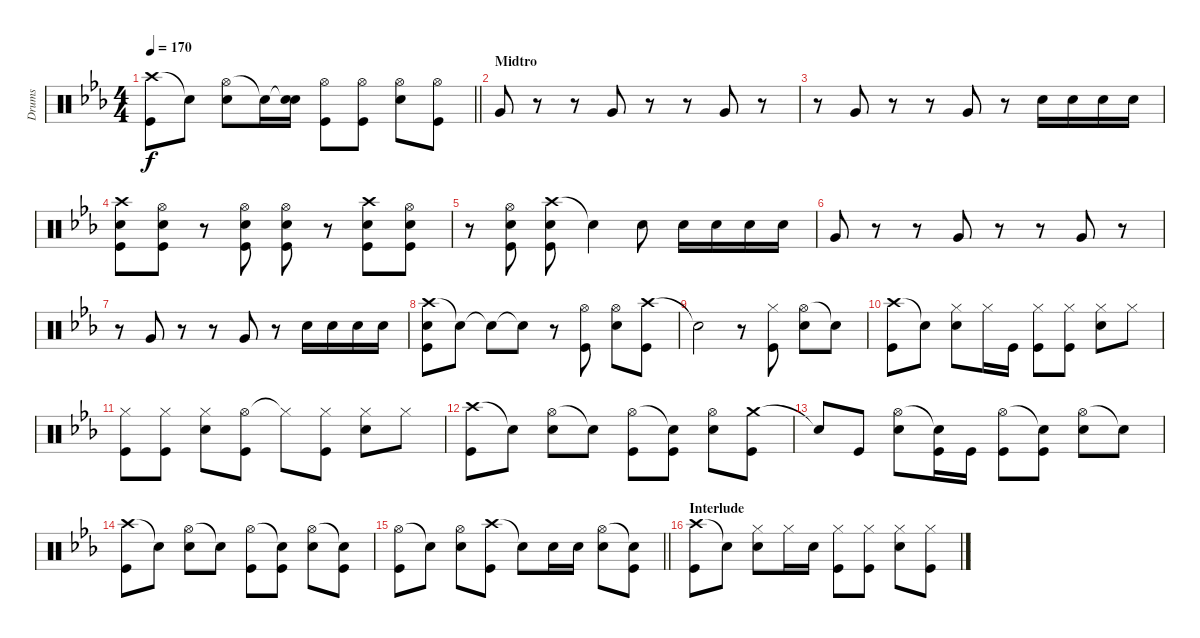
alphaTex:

\track ("Drums" "Drums") {solo instrument percussion}
\staff {score}
\articulation defaults
\ts (4 4)
\tempo 170
\clef neutral
\barLineRight lightlight
\ks eb
("Crash high (hit)" "Kick (hit)").8{dy f} "Snare (hit)"{t}.8 ("Hi-Hat (open)" "Snare (hit) 2").8 "Snare (hit)"{t}.16 ("Snare (hit)"{t} "Snare (hit) 2").16 ("Hi-Hat (open)" "Kick (hit)").8 ("Hi-Hat (open)" "Kick (hit)").8 ("Hi-Hat (open)" "Snare (hit) 2").8 ("Hi-Hat (open)" "Kick (hit)").8 |
\section ("" "Midtro")
"Very Low Tom (hit)".8 r.8 r.8 "Very Low Tom (hit)".8 r.8 r.8 "Very Low Tom (hit)".8 r.8 |
r.8 "Very Low Tom (hit)".8 r.8 r.8 "Very Low Tom (hit)".8 r.8 "Snare (hit) 2".16 "Snare (hit) 2".16 "Snare (hit) 2".16 "Snare (hit) 2".16 |
("Crash high (hit)" "Snare (hit) 2" "Kick (hit)").8 ("Hi-Hat (open)" "Snare (hit) 2" "Kick (hit)").8 r.8 ("Hi-Hat (open)" "Snare (hit) 2" "Kick (hit)").8 ("Hi-Hat (open)" "Snare (hit) 2" "Kick (hit)").8 r.8 ("Crash high (hit)" "Snare (hit) 2" "Kick (hit)").8 ("Hi-Hat (open)" "Snare (hit) 2" "Kick (hit)").8 |
r.8 ("Hi-Hat (open)" "Snare (hit) 2" "Kick (hit)").8 ("Crash high (hit)" "Snare (hit) 2" "Kick (hit)").8 "Snare (hit)"{t}.4 "Snare (hit) 2".8 "Snare (hit) 2".16 "Snare (hit) 2".16 "Snare (hit) 2".16 "Snare (hit) 2".16 |
"Very Low Tom (hit)".8 r.8 r.8 "Very Low Tom (hit)".8 r.8 r.8 "Very Low Tom (hit)".8 r.8 |
r.8 "Very Low Tom (hit)".8 r.8 r.8 "Very Low Tom (hit)".8 r.8 "Snare (hit) 2".16 "Snare (hit) 2".16 "Snare (hit) 2".16 "Snare (hit) 2".16 |
("Crash high (hit)" "Snare (hit) 2" "Kick (hit)").8 "Snare (hit)"{t}.8 "Snare (hit)"{t}.8 "Snare (hit)"{t}.8 r.8 ("Hi-Hat (open)" "Kick (hit)").8 ("Hi-Hat (open)" "Snare (hit) 2").8 ("Crash high (hit)" "Kick (hit)").8 |
"Snare (hit)"{t}.2 r.8 ("Hi-Hat (closed)" "Kick (hit)").8 ("Hi-Hat (open)" "Snare (hit) 2").8 "Snare (hit)"{t}.8 |
("Crash high (hit)" "Kick (hit)").8 "Snare (hit)"{t}.8 ("Hi-Hat (closed)" "Snare (hit) 2").8 "Hi-Hat (closed)".16 "Kick (hit)".16 ("Hi-Hat (closed)" "Kick (hit)").8 ("Hi-Hat (closed)" "Kick (hit)").8 ("Hi-Hat (closed)" "Snare (hit) 2").8 "Hi-Hat (closed)".8 |
("Hi-Hat (closed)" "Kick (hit)").8 ("Hi-Hat (closed)" "Kick (hit)").8 ("Hi-Hat (closed)" "Snare (hit) 2").8 ("Hi-Hat (open)" "Kick (hit)").8 "Hi-Hat (closed)"{t}.8 ("Hi-Hat (closed)" "Kick (hit)").8 ("Hi-Hat (closed)" "Snare (hit) 2").8 "Hi-Hat (closed)".8 |
("Crash high (hit)" "Kick (hit)").8 "Snare (hit)"{t}.8 ("Hi-Hat (open)" "Snare (hit) 2").8 "Snare (hit)"{t}.8 ("Hi-Hat (open)" "Kick (hit)").8 ("Snare (hit)"{t} "Kick (hit)").8 ("Hi-Hat (open)" "Snare (hit) 2").8 ("Crash medium (hit)" "Kick (hit)").8 |
"Snare (hit)"{t}.8 "Kick (hit)".8 ("Hi-Hat (open)" "Snare (hit) 2").8 ("Snare (hit)"{t} "Kick (hit)").16 "Kick (hit)".16 ("Hi-Hat (open)" "Kick (hit)").8 ("Snare (hit)"{t} "Kick (hit)").8 ("Hi-Hat (open)" "Snare (hit) 2").8 "Snare (hit)"{t}.8 |
("Crash high (hit)" "Kick (hit)").8 "Snare (hit)"{t}.8 ("Hi-Hat (open)" "Snare (hit) 2").8 "Snare (hit)"{t}.8 ("Hi-Hat (open)" "Kick (hit)").8 ("Snare (hit)"{t} "Kick (hit)").8 ("Hi-Hat (open)" "Snare (hit) 2").8 ("Snare (hit)"{t} "Kick (hit)").8 |
\barLineRight lightlight
("Hi-Hat (open)" "Kick (hit)").8 "Snare (hit)"{t}.8 ("Hi-Hat (open)" "Snare (hit) 2").8 ("Crash high (hit)" "Kick (hit)").8 "Snare (hit)"{t}.8 "Snare (hit) 2".16 "Snare (hit) 2".16 ("Hi-Hat (open)" "Snare (hit) 2").8 ("Snare (hit)"{t} "Kick (hit)").8 |
\section ("" "Interlude")
("Crash high (hit)" "Kick (hit)").8 "Snare (hit)"{t}.8 ("Hi-Hat (closed)" "Snare (hit) 2").8 "Hi-Hat (closed)".16 "Snare (hit) 2".16 ("Hi-Hat (closed)" "Kick (hit)").8 ("Hi-Hat (closed)" "Kick (hit)").8 ("Hi-Hat (closed)" "Snare (hit) 2").8 ("Hi-Hat (closed)" "Kick (hit)").8
